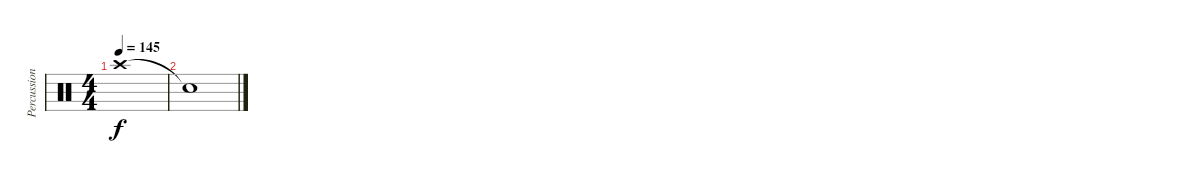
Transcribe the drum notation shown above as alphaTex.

\track ("Percussion" "Percussion") {instrument percussion}
\staff {score}
\articulation defaults
\ts (4 4)
\tempo 145
\clef neutral
\ks c "Crash high (hit)".1{dy f}
|
"Snare (hit)"{t}.1
